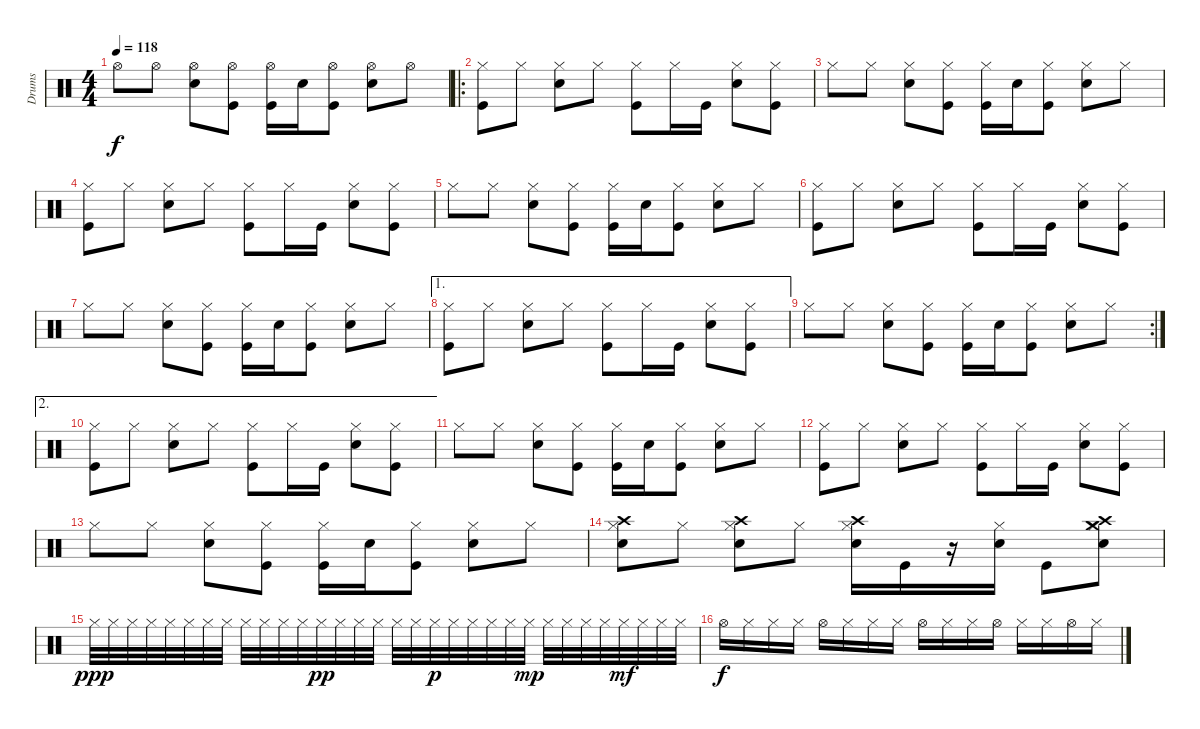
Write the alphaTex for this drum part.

\track ("Drums" "Drums") {instrument percussion}
\staff {score}
\articulation defaults
\ts (4 4)
\tempo 118
\clef neutral
\ks c "Hi-Hat (open)".8{dy f} "Hi-Hat (open)".8
("Hi-Hat (open)" "Snare (hit) 2").8 ("Hi-Hat (open)" "Kick (hit)").8 ("Hi-Hat (open)" "Kick (hit)").16 "Snare (hit) 2".16 ("Hi-Hat (open)" "Kick (hit)").8 ("Hi-Hat (open)" "Snare (hit) 2").8 "Hi-Hat (open)".8 |
\ro
("Hi-Hat (closed)" "Kick (hit)").8 "Hi-Hat (closed)".8 ("Hi-Hat (closed)" "Snare (hit) 2").8 "Hi-Hat (closed)".8 ("Hi-Hat (closed)" "Kick (hit)").8 "Hi-Hat (closed)".16 "Kick (hit)".16 ("Hi-Hat (closed)" "Snare (hit) 2").8 ("Hi-Hat (closed)" "Kick (hit)").8 |
"Hi-Hat (closed)".8 "Hi-Hat (closed)".8 ("Hi-Hat (closed)" "Snare (hit) 2").8 ("Hi-Hat (closed)" "Kick (hit)").8 ("Hi-Hat (closed)" "Kick (hit)").16 "Snare (hit) 2".16 ("Hi-Hat (closed)" "Kick (hit)").8 ("Hi-Hat (closed)" "Snare (hit) 2").8 "Hi-Hat (closed)".8 |
("Hi-Hat (closed)" "Kick (hit)").8 "Hi-Hat (closed)".8 ("Hi-Hat (closed)" "Snare (hit) 2").8 "Hi-Hat (closed)".8 ("Hi-Hat (closed)" "Kick (hit)").8 "Hi-Hat (closed)".16 "Kick (hit)".16 ("Hi-Hat (closed)" "Snare (hit) 2").8 ("Hi-Hat (closed)" "Kick (hit)").8 |
"Hi-Hat (closed)".8 "Hi-Hat (closed)".8 ("Hi-Hat (closed)" "Snare (hit) 2").8 ("Hi-Hat (closed)" "Kick (hit)").8 ("Hi-Hat (closed)" "Kick (hit)").16 "Snare (hit) 2".16 ("Hi-Hat (closed)" "Kick (hit)").8 ("Hi-Hat (closed)" "Snare (hit) 2").8 "Hi-Hat (closed)".8 |
("Hi-Hat (closed)" "Kick (hit)").8 "Hi-Hat (closed)".8 ("Hi-Hat (closed)" "Snare (hit) 2").8 "Hi-Hat (closed)".8 ("Hi-Hat (closed)" "Kick (hit)").8 "Hi-Hat (closed)".16 "Kick (hit)".16 ("Hi-Hat (closed)" "Snare (hit) 2").8 ("Hi-Hat (closed)" "Kick (hit)").8 |
"Hi-Hat (closed)".8 "Hi-Hat (closed)".8 ("Hi-Hat (closed)" "Snare (hit) 2").8 ("Hi-Hat (closed)" "Kick (hit)").8 ("Hi-Hat (closed)" "Kick (hit)").16 "Snare (hit) 2".16 ("Hi-Hat (closed)" "Kick (hit)").8 ("Hi-Hat (closed)" "Snare (hit) 2").8 "Hi-Hat (closed)".8 |
\ae 1
("Hi-Hat (closed)" "Kick (hit)").8 "Hi-Hat (closed)".8 ("Hi-Hat (closed)" "Snare (hit) 2").8 "Hi-Hat (closed)".8 ("Hi-Hat (closed)" "Kick (hit)").8 "Hi-Hat (closed)".16 "Kick (hit)".16 ("Hi-Hat (closed)" "Snare (hit) 2").8 ("Hi-Hat (closed)" "Kick (hit)").8 |
\rc 2 "Hi-Hat (closed)".8 "Hi-Hat (closed)".8
("Hi-Hat (closed)" "Snare (hit) 2").8 ("Hi-Hat (closed)" "Kick (hit)").8 ("Hi-Hat (closed)" "Kick (hit)").16 "Snare (hit) 2".16 ("Hi-Hat (closed)" "Kick (hit)").8 ("Hi-Hat (closed)" "Snare (hit) 2").8 "Hi-Hat (closed)".8 |
\ae 2
("Hi-Hat (closed)" "Kick (hit)").8 "Hi-Hat (closed)".8 ("Hi-Hat (closed)" "Snare (hit) 2").8 "Hi-Hat (closed)".8 ("Hi-Hat (closed)" "Kick (hit)").8 "Hi-Hat (closed)".16 "Kick (hit)".16 ("Hi-Hat (closed)" "Snare (hit) 2").8 ("Hi-Hat (closed)" "Kick (hit)").8 |
"Hi-Hat (closed)".8 "Hi-Hat (closed)".8 ("Hi-Hat (closed)" "Snare (hit) 2").8 ("Hi-Hat (closed)" "Kick (hit)").8 ("Hi-Hat (closed)" "Kick (hit)").16 "Snare (hit) 2".16 ("Hi-Hat (closed)" "Kick (hit)").8 ("Hi-Hat (closed)" "Snare (hit) 2").8 "Hi-Hat (closed)".8 |
("Hi-Hat (closed)" "Kick (hit)").8 "Hi-Hat (closed)".8 ("Hi-Hat (closed)" "Snare (hit) 2").8 "Hi-Hat (closed)".8 ("Hi-Hat (closed)" "Kick (hit)").8 "Hi-Hat (closed)".16 "Kick (hit)".16 ("Hi-Hat (closed)" "Snare (hit) 2").8 ("Hi-Hat (closed)" "Kick (hit)").8 |
"Hi-Hat (closed)".8 "Hi-Hat (closed)".8 ("Hi-Hat (closed)" "Snare (hit) 2").8 ("Hi-Hat (closed)" "Kick (hit)").8 ("Hi-Hat (closed)" "Kick (hit)").16 "Snare (hit) 2".16 ("Hi-Hat (closed)" "Kick (hit)").8 ("Hi-Hat (closed)" "Snare (hit) 2").8 "Hi-Hat (closed)".8 |
("Crash high (hit)" "Hi-Hat (closed)" "Snare (hit) 2").8 "Hi-Hat (closed)".8 ("Crash high (hit)" "Hi-Hat (closed)" "Snare (hit) 2").8 "Hi-Hat (closed)".8 ("Crash high (hit)" "Hi-Hat (closed)" "Snare (hit) 2").16 "Kick (hit)".16 r.16 ("Hi-Hat (closed)" "Snare (hit) 2").16 "Kick (hit)".8 ("Crash high (hit)" "Hi-Hat (closed)" "Snare (hit) 2" "Crash medium (hit)").8 |
"Hi-Hat (closed)".32{dy ppp} "Hi-Hat (closed)".32 "Hi-Hat (closed)".32 "Hi-Hat (closed)".32 "Hi-Hat (closed)".32 "Hi-Hat (closed)".32 "Hi-Hat (closed)".32 "Hi-Hat (closed)".32 "Hi-Hat (closed)".32 "Hi-Hat (closed)".32 "Hi-Hat (closed)".32 "Hi-Hat (closed)".32 "Hi-Hat (closed)".32{dy pp} "Hi-Hat (closed)".32 "Hi-Hat (closed)".32 "Hi-Hat (closed)".32 "Hi-Hat (closed)".32 "Hi-Hat (closed)".32 "Hi-Hat (closed)".32{dy p} "Hi-Hat (closed)".32 "Hi-Hat (closed)".32 "Hi-Hat (closed)".32 "Hi-Hat (closed)".32 "Hi-Hat (closed)".32{dy mp} "Hi-Hat (closed)".32 "Hi-Hat (closed)".32 "Hi-Hat (closed)".32 "Hi-Hat (closed)".32 "Hi-Hat (closed)".32{dy mf} "Hi-Hat (closed)".32 "Hi-Hat (closed)".32 "Hi-Hat (closed)".32 |
"Hi-Hat (open)".16{dy f} "Hi-Hat (closed)".16 "Hi-Hat (closed)".16 "Hi-Hat (closed)".16 "Hi-Hat (open)".16 "Hi-Hat (closed)".16 "Hi-Hat (closed)".16 "Hi-Hat (closed)".16 "Hi-Hat (open)".16 "Hi-Hat (closed)".16 "Hi-Hat (closed)".16 "Hi-Hat (open)".16 "Hi-Hat (closed)".16 "Hi-Hat (closed)".16 "Hi-Hat (open)".16 "Hi-Hat (closed)".16
